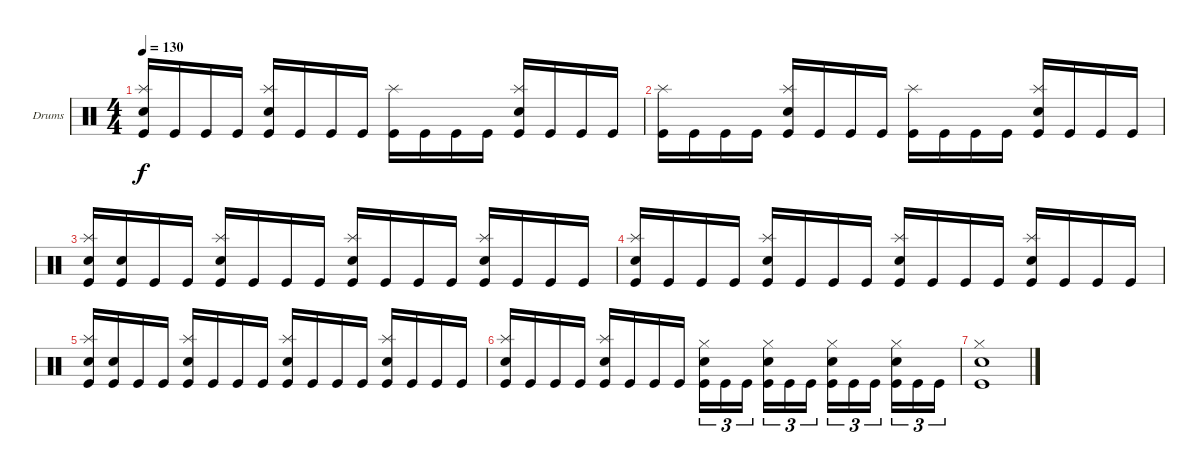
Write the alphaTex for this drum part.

\bracketExtendMode groupsimilarinstruments
\firstSystemTrackNameOrientation horizontal
\otherSystemsTrackNameOrientation horizontal
\track ("Drumkit" "Drums") {instrument percussion}
\staff {score}
\articulation defaults
\ts (4 4)
\tempo 130
\clef neutral
\ks c
("Kick (hit)" "Splash (hit)" "Snare (hit) 2").16{dy f} "Kick (hit)".16 "Kick (hit)".16 "Kick (hit)".16 ("Kick (hit)" "Snare (hit) 2" "Splash (hit)").16 "Kick (hit)".16 "Kick (hit)".16 "Kick (hit)".16 ("Kick (hit)" "Splash (hit)").16 "Kick (hit)".16 "Kick (hit)".16 "Kick (hit)".16 ("Kick (hit)" "Snare (hit) 2" "Splash (hit)").16 "Kick (hit)".16 "Kick (hit)".16 "Kick (hit)".16 |
("Kick (hit)" "Splash (hit)").16 "Kick (hit)".16 "Kick (hit)".16 "Kick (hit)".16 ("Kick (hit)" "Snare (hit) 2" "Splash (hit)").16 "Kick (hit)".16 "Kick (hit)".16 "Kick (hit)".16 ("Kick (hit)" "Splash (hit)").16 "Kick (hit)".16 "Kick (hit)".16 "Kick (hit)".16 ("Kick (hit)" "Snare (hit) 2" "Splash (hit)").16 "Kick (hit)".16 "Kick (hit)".16 "Kick (hit)".16 |
("Kick (hit)" "Splash (hit)" "Snare (hit) 2").16 ("Kick (hit)" "Snare (hit) 2").16 "Kick (hit)".16 "Kick (hit)".16 ("Kick (hit)" "Snare (hit) 2" "Splash (hit)").16 "Kick (hit)".16 "Kick (hit)".16 "Kick (hit)".16 ("Kick (hit)" "Splash (hit)" "Snare (hit) 2").16 "Kick (hit)".16 "Kick (hit)".16 "Kick (hit)".16 ("Kick (hit)" "Snare (hit) 2" "Splash (hit)").16 "Kick (hit)".16 "Kick (hit)".16 "Kick (hit)".16 |
("Kick (hit)" "Splash (hit)" "Snare (hit) 2").16 "Kick (hit)".16 "Kick (hit)".16 "Kick (hit)".16 ("Kick (hit)" "Snare (hit) 2" "Splash (hit)").16 "Kick (hit)".16 "Kick (hit)".16 "Kick (hit)".16 ("Kick (hit)" "Splash (hit)" "Snare (hit) 2").16 "Kick (hit)".16 "Kick (hit)".16 "Kick (hit)".16 ("Kick (hit)" "Snare (hit) 2" "Splash (hit)").16 "Kick (hit)".16 "Kick (hit)".16 "Kick (hit)".16 |
("Kick (hit)" "Splash (hit)" "Snare (hit) 2").16 ("Kick (hit)" "Snare (hit) 2").16 "Kick (hit)".16 "Kick (hit)".16 ("Kick (hit)" "Snare (hit) 2" "Splash (hit)").16 "Kick (hit)".16 "Kick (hit)".16 "Kick (hit)".16 ("Kick (hit)" "Splash (hit)" "Snare (hit) 2").16 "Kick (hit)".16 "Kick (hit)".16 "Kick (hit)".16 ("Kick (hit)" "Snare (hit) 2" "Splash (hit)").16 "Kick (hit)".16 "Kick (hit)".16 "Kick (hit)".16 |
("Kick (hit)" "Splash (hit)" "Snare (hit) 2").16 "Kick (hit)".16 "Kick (hit)".16 "Kick (hit)".16 ("Kick (hit)" "Snare (hit) 2" "Splash (hit)").16 "Kick (hit)".16 "Kick (hit)".16 "Kick (hit)".16 ("Kick (hit)" "Snare (hit) 2" "Hi-Hat (closed)").16{tu (3 2)} "Kick (hit)".16{tu (3 2)} "Kick (hit)".16{tu (3 2)} ("Kick (hit)" "Snare (hit) 2" "Hi-Hat (closed)").16{tu (3 2)} "Kick (hit)".16{tu (3 2)} "Kick (hit)".16{tu (3 2)} ("Kick (hit)" "Snare (hit) 2" "Hi-Hat (closed)").16{tu (3 2)} "Kick (hit)".16{tu (3 2)} "Kick (hit)".16{tu (3 2)} ("Kick (hit)" "Snare (hit) 2" "Hi-Hat (closed)").16{tu (3 2)} "Kick (hit)".16{tu (3 2)} "Kick (hit)".16{tu (3 2)} |
("Hi-Hat (closed)" "Snare (hit) 2" "Kick (hit)").1
